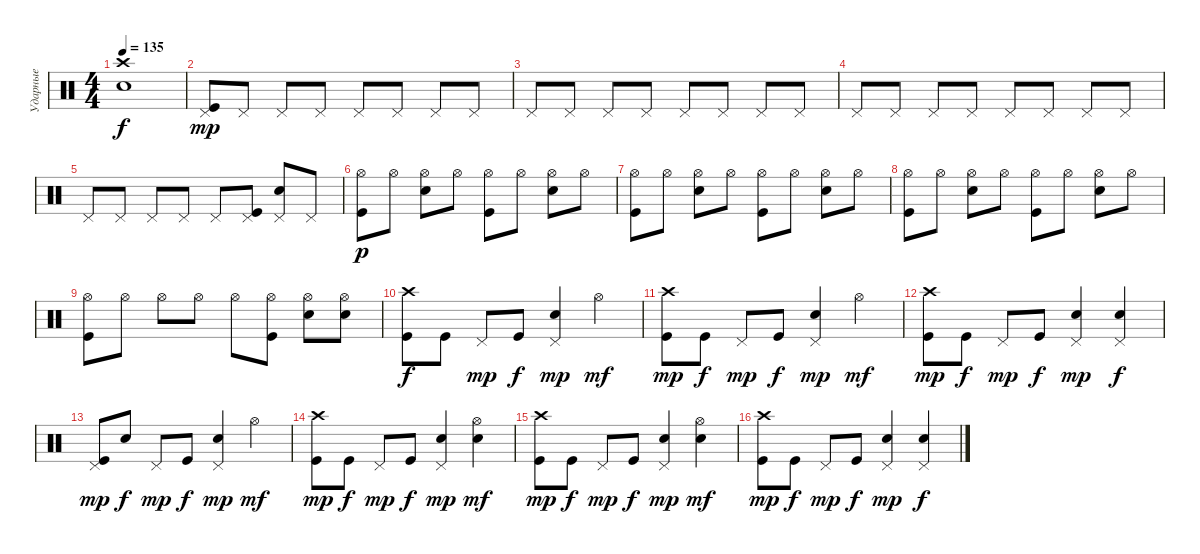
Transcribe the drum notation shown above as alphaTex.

\track ("Ударные" "Ударные") {instrument percussion}
\staff {score}
\articulation defaults
\ts (4 4)
\tempo 135
\clef neutral
\ks c
("Crash high (hit)" "Snare (hit) 2").1{dy f} |
("Pedal Hi-Hat (hit)" "Kick (hit)").8{dy mp} "Pedal Hi-Hat (hit)".8 "Pedal Hi-Hat (hit)".8 "Pedal Hi-Hat (hit)".8 "Pedal Hi-Hat (hit)".8 "Pedal Hi-Hat (hit)".8 "Pedal Hi-Hat (hit)".8 "Pedal Hi-Hat (hit)".8 |
"Pedal Hi-Hat (hit)".8 "Pedal Hi-Hat (hit)".8 "Pedal Hi-Hat (hit)".8 "Pedal Hi-Hat (hit)".8 "Pedal Hi-Hat (hit)".8 "Pedal Hi-Hat (hit)".8 "Pedal Hi-Hat (hit)".8 "Pedal Hi-Hat (hit)".8 |
"Pedal Hi-Hat (hit)".8 "Pedal Hi-Hat (hit)".8 "Pedal Hi-Hat (hit)".8 "Pedal Hi-Hat (hit)".8 "Pedal Hi-Hat (hit)".8 "Pedal Hi-Hat (hit)".8 "Pedal Hi-Hat (hit)".8 "Pedal Hi-Hat (hit)".8 |
"Pedal Hi-Hat (hit)".8 "Pedal Hi-Hat (hit)".8 "Pedal Hi-Hat (hit)".8 "Pedal Hi-Hat (hit)".8 "Pedal Hi-Hat (hit)".8 ("Pedal Hi-Hat (hit)" "Kick (hit)").8 ("Pedal Hi-Hat (hit)" "Snare (hit) 2").8 "Pedal Hi-Hat (hit)".8 |
("Hi-Hat (open)" "Kick (hit)").8{dy p} "Hi-Hat (open)".8 ("Hi-Hat (open)" "Snare (hit) 2").8 "Hi-Hat (open)".8 ("Hi-Hat (open)" "Kick (hit)").8 "Hi-Hat (open)".8 ("Hi-Hat (open)" "Snare (hit) 2").8 "Hi-Hat (open)".8 |
("Hi-Hat (open)" "Kick (hit)").8 "Hi-Hat (open)".8 ("Hi-Hat (open)" "Snare (hit) 2").8 "Hi-Hat (open)".8 ("Hi-Hat (open)" "Kick (hit)").8 "Hi-Hat (open)".8 ("Hi-Hat (open)" "Snare (hit) 2").8 "Hi-Hat (open)".8 |
("Hi-Hat (open)" "Kick (hit)").8 "Hi-Hat (open)".8 ("Hi-Hat (open)" "Snare (hit) 2").8 "Hi-Hat (open)".8 ("Hi-Hat (open)" "Kick (hit)").8 "Hi-Hat (open)".8 ("Hi-Hat (open)" "Snare (hit) 2").8 "Hi-Hat (open)".8 |
("Hi-Hat (open)" "Kick (hit)").8 "Hi-Hat (open)".8 "Hi-Hat (open)".8 "Hi-Hat (open)".8 "Hi-Hat (open)".8 ("Hi-Hat (open)" "Kick (hit)").8 ("Hi-Hat (open)" "Snare (hit) 2").8 ("Hi-Hat (open)" "Snare (hit) 2").8 |
("Crash high (hit)" "Kick (hit)").8{dy f} "Kick (hit)".8 "Pedal Hi-Hat (hit)".8{dy mp} "Kick (hit)".8{dy f} ("Pedal Hi-Hat (hit)" "Snare (hit) 2").4{dy mp} "Hi-Hat (open)".4{dy mf} |
("Crash high (hit)" "Kick (hit)").8{dy mp} "Kick (hit)".8{dy f} "Pedal Hi-Hat (hit)".8{dy mp} "Kick (hit)".8{dy f} ("Pedal Hi-Hat (hit)" "Snare (hit) 2").4{dy mp} "Hi-Hat (open)".4{dy mf} |
("Crash high (hit)" "Kick (hit)").8{dy mp} "Kick (hit)".8{dy f} "Pedal Hi-Hat (hit)".8{dy mp} "Kick (hit)".8{dy f} ("Pedal Hi-Hat (hit)" "Snare (hit) 2").4{dy mp} ("Pedal Hi-Hat (hit)" "Snare (hit) 2").4{dy f} |
("Pedal Hi-Hat (hit)" "Kick (hit)").8{dy mp} "Snare (hit) 2".8{dy f} "Pedal Hi-Hat (hit)".8{dy mp} "Kick (hit)".8{dy f} ("Pedal Hi-Hat (hit)" "Snare (hit) 2").4{dy mp} "Hi-Hat (open)".4{dy mf} |
("Crash high (hit)" "Kick (hit)").8{dy mp} "Kick (hit)".8{dy f} "Pedal Hi-Hat (hit)".8{dy mp} "Kick (hit)".8{dy f} ("Pedal Hi-Hat (hit)" "Snare (hit) 2").4{dy mp} ("Hi-Hat (open)" "Snare (hit) 2").4{dy mf} |
("Crash high (hit)" "Kick (hit)").8{dy mp} "Kick (hit)".8{dy f} "Pedal Hi-Hat (hit)".8{dy mp} "Kick (hit)".8{dy f} ("Pedal Hi-Hat (hit)" "Snare (hit) 2").4{dy mp} ("Hi-Hat (open)" "Snare (hit) 2").4{dy mf} |
("Crash high (hit)" "Kick (hit)").8{dy mp} "Kick (hit)".8{dy f} "Pedal Hi-Hat (hit)".8{dy mp} "Kick (hit)".8{dy f} ("Pedal Hi-Hat (hit)" "Snare (hit) 2").4{dy mp} ("Pedal Hi-Hat (hit)" "Snare (hit) 2").4{dy f}
